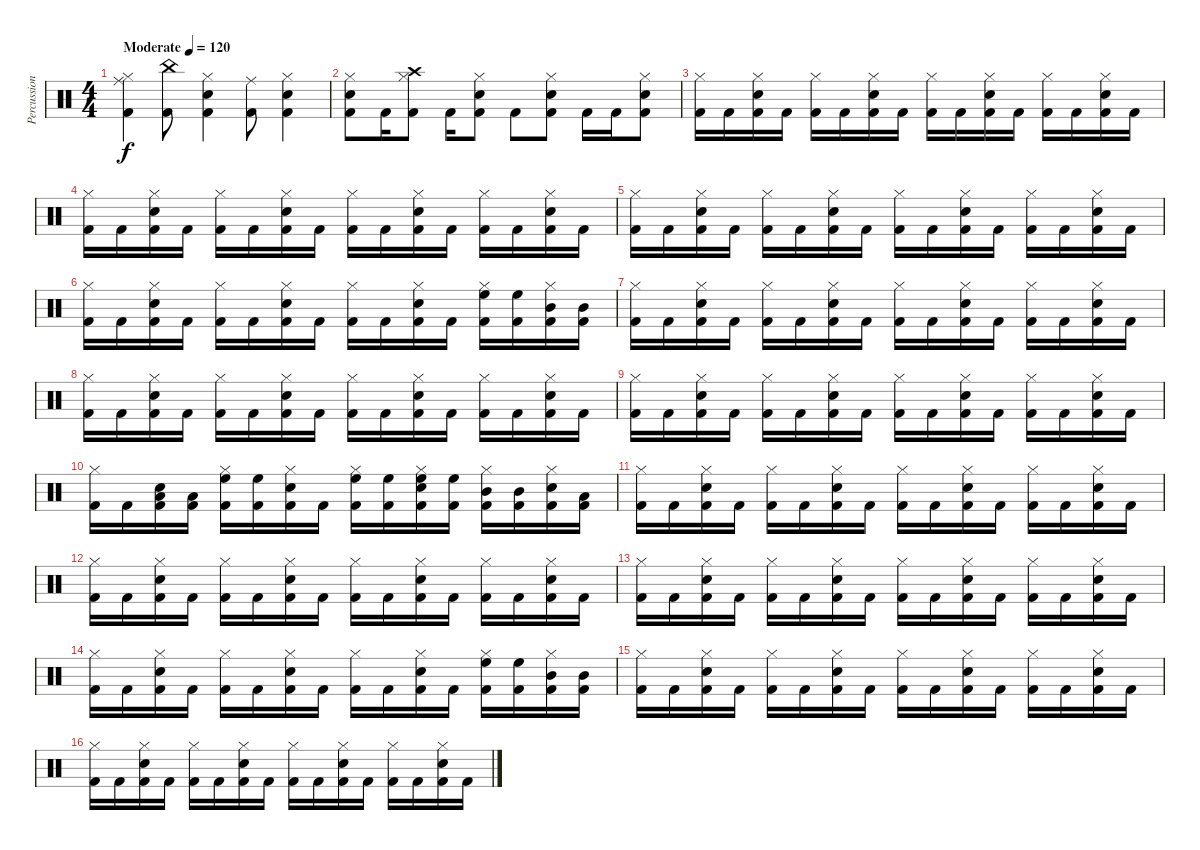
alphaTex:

\track ("Percussions" "Percussion") {instrument percussion}
\staff {score}
\articulation defaults
\ts (4 4)
\tempo (120 "Moderate")
\tempo 158
\tempo (120 "Moderate")
\clef neutral
\ks c
("Hi-Hat (closed)" "Ride (middle)" "Kick (hit) 2").4{dy f} ("China (hit)" "Kick (hit) 2").8 ("Hi-Hat (closed)" "Snare (hit) 2" "Kick (hit) 2").4 ("Ride (middle)" "Kick (hit) 2").8 ("Hi-Hat (closed)" "Snare (hit) 2" "Kick (hit) 2").4 |
("Hi-Hat (closed)" "Snare (hit) 2" "Kick (hit) 2").8 "Kick (hit) 2".16 ("Hi-Hat (closed)" "Crash high (hit)" "Kick (hit) 2").8 "Kick (hit) 2".16 ("Hi-Hat (closed)" "Snare (hit) 2" "Kick (hit) 2").8 "Kick (hit) 2".8 ("Hi-Hat (closed)" "Snare (hit) 2" "Kick (hit) 2").8 "Kick (hit) 2".16 "Kick (hit) 2".16 ("Hi-Hat (closed)" "Snare (hit) 2" "Kick (hit) 2").8 |
("Hi-Hat (closed)" "Kick (hit) 2").16 "Kick (hit) 2".16 ("Hi-Hat (closed)" "Snare (hit) 2" "Kick (hit) 2").16 "Kick (hit) 2".16 ("Hi-Hat (closed)" "Kick (hit) 2").16 "Kick (hit) 2".16 ("Hi-Hat (closed)" "Snare (hit) 2" "Kick (hit) 2").16 "Kick (hit) 2".16 ("Hi-Hat (closed)" "Kick (hit) 2").16 "Kick (hit) 2".16 ("Hi-Hat (closed)" "Snare (hit) 2" "Kick (hit) 2").16 "Kick (hit) 2".16 ("Hi-Hat (closed)" "Kick (hit) 2").16 "Kick (hit) 2".16 ("Hi-Hat (closed)" "Snare (hit) 2" "Kick (hit) 2").16 "Kick (hit) 2".16 |
("Hi-Hat (closed)" "Kick (hit) 2").16 "Kick (hit) 2".16 ("Hi-Hat (closed)" "Snare (hit) 2" "Kick (hit) 2").16 "Kick (hit) 2".16 ("Hi-Hat (closed)" "Kick (hit) 2").16 "Kick (hit) 2".16 ("Hi-Hat (closed)" "Snare (hit) 2" "Kick (hit) 2").16 "Kick (hit) 2".16 ("Hi-Hat (closed)" "Kick (hit) 2").16 "Kick (hit) 2".16 ("Hi-Hat (closed)" "Snare (hit) 2" "Kick (hit) 2").16 "Kick (hit) 2".16 ("Hi-Hat (closed)" "Kick (hit) 2").16 "Kick (hit) 2".16 ("Hi-Hat (closed)" "Snare (hit) 2" "Kick (hit) 2").16 "Kick (hit) 2".16 |
("Hi-Hat (closed)" "Kick (hit) 2").16 "Kick (hit) 2".16 ("Hi-Hat (closed)" "Snare (hit) 2" "Kick (hit) 2").16 "Kick (hit) 2".16 ("Hi-Hat (closed)" "Kick (hit) 2").16 "Kick (hit) 2".16 ("Hi-Hat (closed)" "Snare (hit) 2" "Kick (hit) 2").16 "Kick (hit) 2".16 ("Hi-Hat (closed)" "Kick (hit) 2").16 "Kick (hit) 2".16 ("Hi-Hat (closed)" "Snare (hit) 2" "Kick (hit) 2").16 "Kick (hit) 2".16 ("Hi-Hat (closed)" "Kick (hit) 2").16 "Kick (hit) 2".16 ("Hi-Hat (closed)" "Snare (hit) 2" "Kick (hit) 2").16 "Kick (hit) 2".16 |
("Hi-Hat (closed)" "Kick (hit) 2").16 "Kick (hit) 2".16 ("Hi-Hat (closed)" "Snare (hit) 2" "Kick (hit) 2").16 "Kick (hit) 2".16 ("Hi-Hat (closed)" "Kick (hit) 2").16 "Kick (hit) 2".16 ("Hi-Hat (closed)" "Snare (hit) 2" "Kick (hit) 2").16 "Kick (hit) 2".16 ("Hi-Hat (closed)" "Kick (hit) 2").16 "Kick (hit) 2".16 ("Hi-Hat (closed)" "Snare (hit) 2" "Kick (hit) 2").16 "Kick (hit) 2".16 ("Hi-Hat (closed)" "High Floor Tom (hit)" "Kick (hit) 2").16 ("High Floor Tom (hit)" "Kick (hit) 2").16 ("Hi-Hat (closed)" "Mid Tom (hit)" "Kick (hit) 2").16 ("Mid Tom (hit)" "Kick (hit) 2").16 |
("Hi-Hat (closed)" "Kick (hit) 2").16 "Kick (hit) 2".16 ("Hi-Hat (closed)" "Snare (hit) 2" "Kick (hit) 2").16 "Kick (hit) 2".16 ("Hi-Hat (closed)" "Kick (hit) 2").16 "Kick (hit) 2".16 ("Hi-Hat (closed)" "Snare (hit) 2" "Kick (hit) 2").16 "Kick (hit) 2".16 ("Hi-Hat (closed)" "Kick (hit) 2").16 "Kick (hit) 2".16 ("Hi-Hat (closed)" "Snare (hit) 2" "Kick (hit) 2").16 "Kick (hit) 2".16 ("Hi-Hat (closed)" "Kick (hit) 2").16 "Kick (hit) 2".16 ("Hi-Hat (closed)" "Snare (hit) 2" "Kick (hit) 2").16 "Kick (hit) 2".16 |
("Hi-Hat (closed)" "Kick (hit) 2").16 "Kick (hit) 2".16 ("Hi-Hat (closed)" "Snare (hit) 2" "Kick (hit) 2").16 "Kick (hit) 2".16 ("Hi-Hat (closed)" "Kick (hit) 2").16 "Kick (hit) 2".16 ("Hi-Hat (closed)" "Snare (hit) 2" "Kick (hit) 2").16 "Kick (hit) 2".16 ("Hi-Hat (closed)" "Kick (hit) 2").16 "Kick (hit) 2".16 ("Hi-Hat (closed)" "Snare (hit) 2" "Kick (hit) 2").16 "Kick (hit) 2".16 ("Hi-Hat (closed)" "Kick (hit) 2").16 "Kick (hit) 2".16 ("Hi-Hat (closed)" "Snare (hit) 2" "Kick (hit) 2").16 "Kick (hit) 2".16 |
("Hi-Hat (closed)" "Kick (hit) 2").16 "Kick (hit) 2".16 ("Hi-Hat (closed)" "Snare (hit) 2" "Kick (hit) 2").16 "Kick (hit) 2".16 ("Hi-Hat (closed)" "Kick (hit) 2").16 "Kick (hit) 2".16 ("Hi-Hat (closed)" "Snare (hit) 2" "Kick (hit) 2").16 "Kick (hit) 2".16 ("Hi-Hat (closed)" "Kick (hit) 2").16 "Kick (hit) 2".16 ("Hi-Hat (closed)" "Snare (hit) 2" "Kick (hit) 2").16 "Kick (hit) 2".16 ("Hi-Hat (closed)" "Kick (hit) 2").16 "Kick (hit) 2".16 ("Hi-Hat (closed)" "Snare (hit) 2" "Kick (hit) 2").16 "Kick (hit) 2".16 |
("Hi-Hat (closed)" "Kick (hit) 2").16 "Kick (hit) 2".16 ("Snare (hit) 2" "Low Tom (hit)" "Kick (hit) 2").16 ("Low Tom (hit)" "Kick (hit) 2").16 ("Hi-Hat (closed)" "High Floor Tom (hit)" "Kick (hit) 2").16 ("High Floor Tom (hit)" "Kick (hit) 2").16 ("Hi-Hat (closed)" "Snare (hit) 2" "Kick (hit) 2").16 "Kick (hit) 2".16 ("Hi-Hat (closed)" "High Floor Tom (hit)" "Kick (hit) 2").16 ("High Floor Tom (hit)" "Kick (hit) 2").16 ("Hi-Hat (closed)" "High Floor Tom (hit)" "Snare (hit) 2" "Kick (hit) 2").16 ("High Floor Tom (hit)" "Kick (hit) 2").16 ("Hi-Hat (closed)" "Mid Tom (hit)" "Kick (hit) 2").16 ("Mid Tom (hit)" "Kick (hit) 2").16 ("Hi-Hat (closed)" "Snare (hit) 2" "Kick (hit) 2").16 ("Low Tom (hit)" "Kick (hit) 2").16 |
("Hi-Hat (closed)" "Kick (hit) 2").16 "Kick (hit) 2".16 ("Hi-Hat (closed)" "Snare (hit) 2" "Kick (hit) 2").16 "Kick (hit) 2".16 ("Hi-Hat (closed)" "Kick (hit) 2").16 "Kick (hit) 2".16 ("Hi-Hat (closed)" "Snare (hit) 2" "Kick (hit) 2").16 "Kick (hit) 2".16 ("Hi-Hat (closed)" "Kick (hit) 2").16 "Kick (hit) 2".16 ("Hi-Hat (closed)" "Snare (hit) 2" "Kick (hit) 2").16 "Kick (hit) 2".16 ("Hi-Hat (closed)" "Kick (hit) 2").16 "Kick (hit) 2".16 ("Hi-Hat (closed)" "Snare (hit) 2" "Kick (hit) 2").16 "Kick (hit) 2".16 |
("Hi-Hat (closed)" "Kick (hit) 2").16 "Kick (hit) 2".16 ("Hi-Hat (closed)" "Snare (hit) 2" "Kick (hit) 2").16 "Kick (hit) 2".16 ("Hi-Hat (closed)" "Kick (hit) 2").16 "Kick (hit) 2".16 ("Hi-Hat (closed)" "Snare (hit) 2" "Kick (hit) 2").16 "Kick (hit) 2".16 ("Hi-Hat (closed)" "Kick (hit) 2").16 "Kick (hit) 2".16 ("Hi-Hat (closed)" "Snare (hit) 2" "Kick (hit) 2").16 "Kick (hit) 2".16 ("Hi-Hat (closed)" "Kick (hit) 2").16 "Kick (hit) 2".16 ("Hi-Hat (closed)" "Snare (hit) 2" "Kick (hit) 2").16 "Kick (hit) 2".16 |
("Hi-Hat (closed)" "Kick (hit) 2").16 "Kick (hit) 2".16 ("Hi-Hat (closed)" "Snare (hit) 2" "Kick (hit) 2").16 "Kick (hit) 2".16 ("Hi-Hat (closed)" "Kick (hit) 2").16 "Kick (hit) 2".16 ("Hi-Hat (closed)" "Snare (hit) 2" "Kick (hit) 2").16 "Kick (hit) 2".16 ("Hi-Hat (closed)" "Kick (hit) 2").16 "Kick (hit) 2".16 ("Hi-Hat (closed)" "Snare (hit) 2" "Kick (hit) 2").16 "Kick (hit) 2".16 ("Hi-Hat (closed)" "Kick (hit) 2").16 "Kick (hit) 2".16 ("Hi-Hat (closed)" "Snare (hit) 2" "Kick (hit) 2").16 "Kick (hit) 2".16 |
("Hi-Hat (closed)" "Kick (hit) 2").16 "Kick (hit) 2".16 ("Hi-Hat (closed)" "Snare (hit) 2" "Kick (hit) 2").16 "Kick (hit) 2".16 ("Hi-Hat (closed)" "Kick (hit) 2").16 "Kick (hit) 2".16 ("Hi-Hat (closed)" "Snare (hit) 2" "Kick (hit) 2").16 "Kick (hit) 2".16 ("Hi-Hat (closed)" "Kick (hit) 2").16 "Kick (hit) 2".16 ("Hi-Hat (closed)" "Snare (hit) 2" "Kick (hit) 2").16 "Kick (hit) 2".16 ("Hi-Hat (closed)" "High Floor Tom (hit)" "Kick (hit) 2").16 ("High Floor Tom (hit)" "Kick (hit) 2").16 ("Hi-Hat (closed)" "Mid Tom (hit)" "Kick (hit) 2").16 ("Mid Tom (hit)" "Kick (hit) 2").16 |
("Hi-Hat (closed)" "Kick (hit) 2").16 "Kick (hit) 2".16 ("Hi-Hat (closed)" "Snare (hit) 2" "Kick (hit) 2").16 "Kick (hit) 2".16 ("Hi-Hat (closed)" "Kick (hit) 2").16 "Kick (hit) 2".16 ("Hi-Hat (closed)" "Snare (hit) 2" "Kick (hit) 2").16 "Kick (hit) 2".16 ("Hi-Hat (closed)" "Kick (hit) 2").16 "Kick (hit) 2".16 ("Hi-Hat (closed)" "Snare (hit) 2" "Kick (hit) 2").16 "Kick (hit) 2".16 ("Hi-Hat (closed)" "Kick (hit) 2").16 "Kick (hit) 2".16 ("Hi-Hat (closed)" "Snare (hit) 2" "Kick (hit) 2").16 "Kick (hit) 2".16 |
("Hi-Hat (closed)" "Kick (hit) 2").16 "Kick (hit) 2".16 ("Hi-Hat (closed)" "Snare (hit) 2" "Kick (hit) 2").16 "Kick (hit) 2".16 ("Hi-Hat (closed)" "Kick (hit) 2").16 "Kick (hit) 2".16 ("Hi-Hat (closed)" "Snare (hit) 2" "Kick (hit) 2").16 "Kick (hit) 2".16 ("Hi-Hat (closed)" "Kick (hit) 2").16 "Kick (hit) 2".16 ("Hi-Hat (closed)" "Snare (hit) 2" "Kick (hit) 2").16 "Kick (hit) 2".16 ("Hi-Hat (closed)" "Kick (hit) 2").16 "Kick (hit) 2".16 ("Hi-Hat (closed)" "Snare (hit) 2" "Kick (hit) 2").16 "Kick (hit) 2".16
